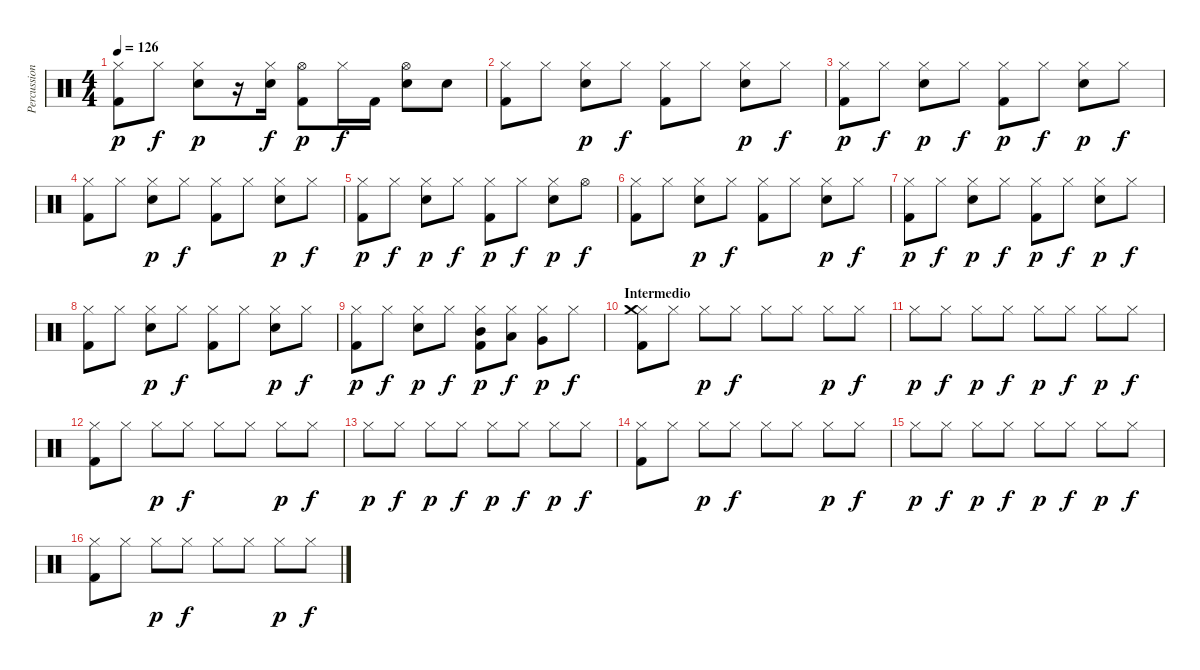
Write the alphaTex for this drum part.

\track ("Percussion" "Percussion") {instrument percussion}
\staff {score}
\articulation defaults
\ts (4 4)
\tempo 126
\clef neutral
\ks c
("Hi-Hat (closed)" "Kick (hit) 2").8{dy p} "Hi-Hat (closed)".8{dy f} ("Hi-Hat (closed)" "Snare (hit) 2").8{dy p} r.16 ("Hi-Hat (closed)" "Snare (hit) 2").16{dy f} ("Hi-Hat (open)" "Kick (hit) 2").8{dy p} "Hi-Hat (closed)".16{dy f} "Kick (hit) 2".16 ("Hi-Hat (open)" "Snare (hit) 2").8 "Snare (hit) 2".8 |
("Hi-Hat (closed)" "Kick (hit) 2").8 "Hi-Hat (closed)".8 ("Hi-Hat (closed)" "Snare (hit) 2").8{dy p} "Hi-Hat (closed)".8{dy f} ("Hi-Hat (closed)" "Kick (hit) 2").8 "Hi-Hat (closed)".8 ("Hi-Hat (closed)" "Snare (hit) 2").8{dy p} "Hi-Hat (closed)".8{dy f} |
("Hi-Hat (closed)" "Kick (hit) 2").8{dy p} "Hi-Hat (closed)".8{dy f} ("Hi-Hat (closed)" "Snare (hit) 2").8{dy p} "Hi-Hat (closed)".8{dy f} ("Hi-Hat (closed)" "Kick (hit) 2").8{dy p} "Hi-Hat (closed)".8{dy f} ("Hi-Hat (closed)" "Snare (hit) 2").8{dy p} "Hi-Hat (closed)".8{dy f} |
("Hi-Hat (closed)" "Kick (hit) 2").8 "Hi-Hat (closed)".8 ("Hi-Hat (closed)" "Snare (hit) 2").8{dy p} "Hi-Hat (closed)".8{dy f} ("Hi-Hat (closed)" "Kick (hit) 2").8 "Hi-Hat (closed)".8 ("Hi-Hat (closed)" "Snare (hit) 2").8{dy p} "Hi-Hat (closed)".8{dy f} |
("Hi-Hat (closed)" "Kick (hit) 2").8{dy p} "Hi-Hat (closed)".8{dy f} ("Hi-Hat (closed)" "Snare (hit) 2").8{dy p} "Hi-Hat (closed)".8{dy f} ("Hi-Hat (closed)" "Kick (hit) 2").8{dy p} "Hi-Hat (closed)".8{dy f} ("Hi-Hat (closed)" "Snare (hit) 2").8{dy p} "Hi-Hat (open)".8{dy f} |
("Hi-Hat (closed)" "Kick (hit) 2").8 "Hi-Hat (closed)".8 ("Hi-Hat (closed)" "Snare (hit) 2").8{dy p} "Hi-Hat (closed)".8{dy f} ("Hi-Hat (closed)" "Kick (hit) 2").8 "Hi-Hat (closed)".8 ("Hi-Hat (closed)" "Snare (hit) 2").8{dy p} "Hi-Hat (closed)".8{dy f} |
("Hi-Hat (closed)" "Kick (hit) 2").8{dy p} "Hi-Hat (closed)".8{dy f} ("Hi-Hat (closed)" "Snare (hit) 2").8{dy p} "Hi-Hat (closed)".8{dy f} ("Hi-Hat (closed)" "Kick (hit) 2").8{dy p} "Hi-Hat (closed)".8{dy f} ("Hi-Hat (closed)" "Snare (hit) 2").8{dy p} "Hi-Hat (closed)".8{dy f} |
("Hi-Hat (closed)" "Kick (hit) 2").8 "Hi-Hat (closed)".8 ("Hi-Hat (closed)" "Snare (hit) 2").8{dy p} "Hi-Hat (closed)".8{dy f} ("Hi-Hat (closed)" "Kick (hit) 2").8 "Hi-Hat (closed)".8 ("Hi-Hat (closed)" "Snare (hit) 2").8{dy p} "Hi-Hat (closed)".8{dy f} |
("Hi-Hat (closed)" "Kick (hit) 2").8{dy p} "Hi-Hat (closed)".8{dy f} ("Hi-Hat (closed)" "Snare (hit) 2").8{dy p} "Hi-Hat (closed)".8{dy f} ("Hi-Hat (closed)" "Kick (hit) 2" "Mid Tom (hit)").8{dy p} ("Hi-Hat (closed)" "Low Tom (hit)").8{dy f} ("Hi-Hat (closed)" "Very Low Tom (hit)").8{dy p} "Hi-Hat (closed)".8{dy f} |
\section ("" "Intermedio")
("Hi-Hat (closed)" "Crash medium (hit)" "Kick (hit) 2").8 "Hi-Hat (closed)".8 "Hi-Hat (closed)".8{dy p} "Hi-Hat (closed)".8{dy f} "Hi-Hat (closed)".8 "Hi-Hat (closed)".8 "Hi-Hat (closed)".8{dy p} "Hi-Hat (closed)".8{dy f} |
"Hi-Hat (closed)".8{dy p} "Hi-Hat (closed)".8{dy f} "Hi-Hat (closed)".8{dy p} "Hi-Hat (closed)".8{dy f} "Hi-Hat (closed)".8{dy p} "Hi-Hat (closed)".8{dy f} "Hi-Hat (closed)".8{dy p} "Hi-Hat (closed)".8{dy f} |
("Hi-Hat (closed)" "Kick (hit) 2").8 "Hi-Hat (closed)".8 "Hi-Hat (closed)".8{dy p} "Hi-Hat (closed)".8{dy f} "Hi-Hat (closed)".8 "Hi-Hat (closed)".8 "Hi-Hat (closed)".8{dy p} "Hi-Hat (closed)".8{dy f} |
"Hi-Hat (closed)".8{dy p} "Hi-Hat (closed)".8{dy f} "Hi-Hat (closed)".8{dy p} "Hi-Hat (closed)".8{dy f} "Hi-Hat (closed)".8{dy p} "Hi-Hat (closed)".8{dy f} "Hi-Hat (closed)".8{dy p} "Hi-Hat (closed)".8{dy f} |
("Hi-Hat (closed)" "Kick (hit) 2").8 "Hi-Hat (closed)".8 "Hi-Hat (closed)".8{dy p} "Hi-Hat (closed)".8{dy f} "Hi-Hat (closed)".8 "Hi-Hat (closed)".8 "Hi-Hat (closed)".8{dy p} "Hi-Hat (closed)".8{dy f} |
"Hi-Hat (closed)".8{dy p} "Hi-Hat (closed)".8{dy f} "Hi-Hat (closed)".8{dy p} "Hi-Hat (closed)".8{dy f} "Hi-Hat (closed)".8{dy p} "Hi-Hat (closed)".8{dy f} "Hi-Hat (closed)".8{dy p} "Hi-Hat (closed)".8{dy f} |
("Hi-Hat (closed)" "Kick (hit) 2").8 "Hi-Hat (closed)".8 "Hi-Hat (closed)".8{dy p} "Hi-Hat (closed)".8{dy f} "Hi-Hat (closed)".8 "Hi-Hat (closed)".8 "Hi-Hat (closed)".8{dy p} "Hi-Hat (closed)".8{dy f}
